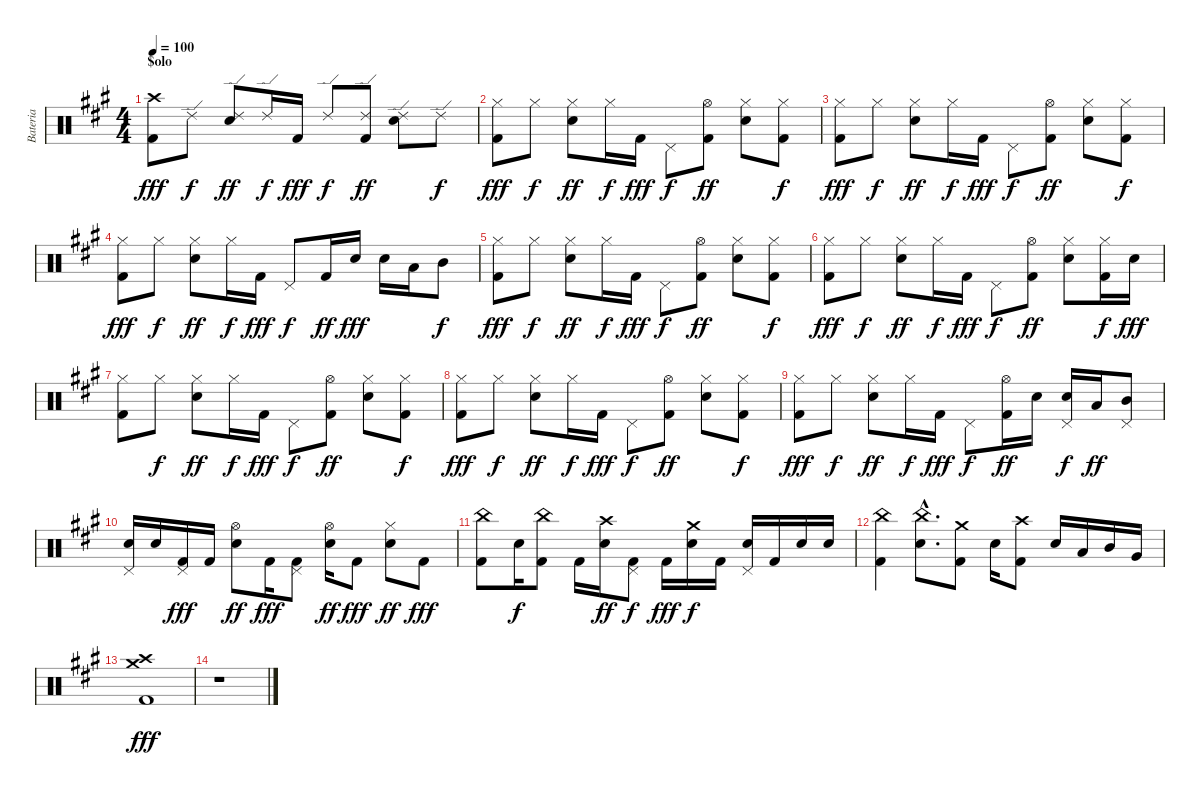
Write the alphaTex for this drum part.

\track ("Bateria" "Bateria") {instrument percussion}
\staff {score}
\articulation defaults
\ts (4 4)
\section ("" "$olo")
\tempo 100
\clef neutral
\ks f#minor
("Crash high (hit)" "Kick (hit) 2").8{dy fff} "Ride (edge) 2".8{dy f} ("Ride (edge) 2" "Electric Snare (hit)").8{dy ff} "Ride (edge) 2".16{dy f} "Kick (hit) 2".16{dy fff} "Ride (edge) 2".8{dy f} ("Ride (edge) 2" "Kick (hit) 2").8{dy ff} ("Ride (edge) 2" "Electric Snare (hit)").8 "Ride (edge) 2".8{dy f} |
("Hi-Hat (closed)" "Kick (hit) 2").8{dy fff} "Hi-Hat (closed)".8{dy f} ("Hi-Hat (closed)" "Electric Snare (hit)").8{dy ff} "Hi-Hat (closed)".16{dy f} "Kick (hit) 2".16{dy fff} "Pedal Hi-Hat (hit)".8{dy f} ("Hi-Hat (open)" "Kick (hit) 2").8{dy ff} ("Hi-Hat (closed)" "Electric Snare (hit)").8 ("Hi-Hat (closed)" "Kick (hit) 2").8{dy f} |
("Hi-Hat (closed)" "Kick (hit) 2").8{dy fff} "Hi-Hat (closed)".8{dy f} ("Hi-Hat (closed)" "Electric Snare (hit)").8{dy ff} "Hi-Hat (closed)".16{dy f} "Kick (hit) 2".16{dy fff} "Pedal Hi-Hat (hit)".8{dy f} ("Hi-Hat (open)" "Kick (hit) 2").8{dy ff} ("Hi-Hat (closed)" "Electric Snare (hit)").8 ("Hi-Hat (closed)" "Kick (hit) 2").8{dy f} |
("Hi-Hat (closed)" "Kick (hit) 2").8{dy fff} "Hi-Hat (closed)".8{dy f} ("Hi-Hat (closed)" "Electric Snare (hit)").8{dy ff} "Hi-Hat (closed)".16{dy f} "Kick (hit) 2".16{dy fff} "Pedal Hi-Hat (hit)".8{dy f} "Kick (hit) 2".16{dy ff} "Electric Snare (hit)".16{dy fff} "Electric Snare (hit)".16 "Low Tom (hit)".16 "Mid Tom (hit)".8{dy f} |
("Hi-Hat (closed)" "Kick (hit) 2").8{dy fff} "Hi-Hat (closed)".8{dy f} ("Hi-Hat (closed)" "Electric Snare (hit)").8{dy ff} "Hi-Hat (closed)".16{dy f} "Kick (hit) 2".16{dy fff} "Pedal Hi-Hat (hit)".8{dy f} ("Hi-Hat (open)" "Kick (hit) 2").8{dy ff} ("Hi-Hat (closed)" "Electric Snare (hit)").8 ("Hi-Hat (closed)" "Kick (hit) 2").8{dy f} |
("Hi-Hat (closed)" "Kick (hit) 2").8{dy fff} "Hi-Hat (closed)".8{dy f} ("Hi-Hat (closed)" "Electric Snare (hit)").8{dy ff} "Hi-Hat (closed)".16{dy f} "Kick (hit) 2".16{dy fff} "Pedal Hi-Hat (hit)".8{dy f} ("Hi-Hat (open)" "Kick (hit) 2").8{dy ff} ("Hi-Hat (closed)" "Electric Snare (hit)").8 ("Hi-Hat (closed)" "Kick (hit) 2").16{dy f} "Electric Snare (hit)".16{dy fff} |
("Hi-Hat (closed)" "Kick (hit) 2").8 "Hi-Hat (closed)".8{dy f} ("Hi-Hat (closed)" "Electric Snare (hit)").8{dy ff} "Hi-Hat (closed)".16{dy f} "Kick (hit) 2".16{dy fff} "Pedal Hi-Hat (hit)".8{dy f} ("Hi-Hat (open)" "Kick (hit) 2").8{dy ff} ("Hi-Hat (closed)" "Electric Snare (hit)").8 ("Hi-Hat (closed)" "Kick (hit) 2").8{dy f} |
("Hi-Hat (closed)" "Kick (hit) 2").8{dy fff} "Hi-Hat (closed)".8{dy f} ("Hi-Hat (closed)" "Electric Snare (hit)").8{dy ff} "Hi-Hat (closed)".16{dy f} "Kick (hit) 2".16{dy fff} "Pedal Hi-Hat (hit)".8{dy f} ("Hi-Hat (open)" "Kick (hit) 2").8{dy ff} ("Hi-Hat (closed)" "Electric Snare (hit)").8 ("Hi-Hat (closed)" "Kick (hit) 2").8{dy f} |
("Hi-Hat (closed)" "Kick (hit) 2").8{dy fff} "Hi-Hat (closed)".8{dy f} ("Hi-Hat (closed)" "Electric Snare (hit)").8{dy ff} "Hi-Hat (closed)".16{dy f} "Kick (hit) 2".16{dy fff} "Pedal Hi-Hat (hit)".8{dy f} ("Hi-Hat (open)" "Kick (hit) 2").16{dy ff} "Electric Snare (hit)".16 ("Pedal Hi-Hat (hit)" "Electric Snare (hit)").16{dy f} "Low Tom (hit)".16{dy ff} ("Pedal Hi-Hat (hit)" "Mid Tom (hit)").8 |
("Pedal Hi-Hat (hit)" "Electric Snare (hit)").16 "Electric Snare (hit)".16 ("Pedal Hi-Hat (hit)" "Kick (hit) 2").16{dy fff} "Kick (hit) 2".16 ("Hi-Hat (open)" "Electric Snare (hit)").8{dy ff} "Kick (hit) 2".16{dy fff} ("Pedal Hi-Hat (hit)" "Kick (hit) 2").8 ("Hi-Hat (open)" "Electric Snare (hit)").16{dy ff} "Kick (hit) 2".8{dy fff} ("Hi-Hat (closed)" "Electric Snare (hit)").8{dy ff} "Kick (hit) 2".8{dy fff} |
("China (hit)" "Kick (hit) 2").8 "Electric Snare (hit)".16{dy f} ("China (hit)" "Kick (hit) 2").8 "Kick (hit) 2".16 ("Crash high (hit)" "Electric Snare (hit)").16{dy ff} ("Pedal Hi-Hat (hit)" "Kick (hit) 2").8{dy f} "Kick (hit) 2".16{dy fff} ("Crash medium (hit)" "Electric Snare (hit)").16{dy f} "Kick (hit) 2".16 ("Pedal Hi-Hat (hit)" "Electric Snare (hit)").16 "Kick (hit) 2".16 "Electric Snare (hit)".16 "Electric Snare (hit)".16 |
("China (hit)" "Kick (hit) 2").4 ("China (hit)"{hac} "Electric Snare (hit)"{hac}).8{d} ("Crash medium (hit)" "Kick (hit) 2").8 "Electric Snare (hit)".16 ("Crash high (hit)" "Kick (hit) 2").8 "Electric Snare (hit)".16 "Low Tom (hit)".16 "Mid Tom (hit)".16 "Very Low Tom (hit)".16 |
("Crash medium (hit)" "Crash high (hit)" "Kick (hit) 2").1{dy fff} |
r.1
